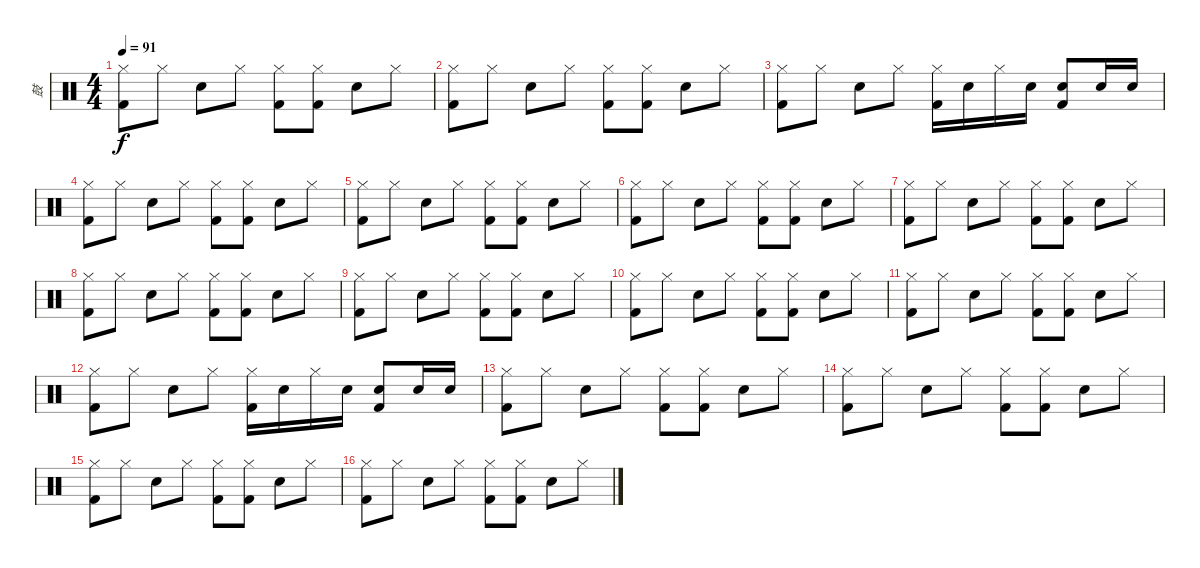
\track ("鼓" "鼓") {instrument percussion}
\staff {score}
\articulation defaults
\ts (4 4)
\tempo 91
\clef neutral
\ks c
("Hi-Hat (closed)" "Kick (hit) 2").8{dy f} "Hi-Hat (closed)".8 "Snare (hit) 2".8 "Hi-Hat (closed)".8 ("Hi-Hat (closed)" "Kick (hit) 2").8 ("Hi-Hat (closed)" "Kick (hit) 2").8 "Snare (hit) 2".8 "Hi-Hat (closed)".8 |
("Hi-Hat (closed)" "Kick (hit) 2").8 "Hi-Hat (closed)".8 "Snare (hit) 2".8 "Hi-Hat (closed)".8 ("Hi-Hat (closed)" "Kick (hit) 2").8 ("Hi-Hat (closed)" "Kick (hit) 2").8 "Snare (hit) 2".8 "Hi-Hat (closed)".8 |
("Hi-Hat (closed)" "Kick (hit) 2").8 "Hi-Hat (closed)".8 "Snare (hit) 2".8 "Hi-Hat (closed)".8 ("Hi-Hat (closed)" "Kick (hit) 2").16 "Snare (hit) 2".16 "Hi-Hat (closed)".16 "Snare (hit) 2".16 ("Snare (hit) 2" "Kick (hit) 2").8 "Snare (hit) 2".16 "Snare (hit) 2".16 |
("Hi-Hat (closed)" "Kick (hit) 2").8 "Hi-Hat (closed)".8 "Snare (hit) 2".8 "Hi-Hat (closed)".8 ("Hi-Hat (closed)" "Kick (hit) 2").8 ("Hi-Hat (closed)" "Kick (hit) 2").8 "Snare (hit) 2".8 "Hi-Hat (closed)".8 |
("Hi-Hat (closed)" "Kick (hit) 2").8 "Hi-Hat (closed)".8 "Snare (hit) 2".8 "Hi-Hat (closed)".8 ("Hi-Hat (closed)" "Kick (hit) 2").8 ("Hi-Hat (closed)" "Kick (hit) 2").8 "Snare (hit) 2".8 "Hi-Hat (closed)".8 |
("Hi-Hat (closed)" "Kick (hit) 2").8 "Hi-Hat (closed)".8 "Snare (hit) 2".8 "Hi-Hat (closed)".8 ("Hi-Hat (closed)" "Kick (hit) 2").8 ("Hi-Hat (closed)" "Kick (hit) 2").8 "Snare (hit) 2".8 "Hi-Hat (closed)".8 |
("Hi-Hat (closed)" "Kick (hit) 2").8 "Hi-Hat (closed)".8 "Snare (hit) 2".8 "Hi-Hat (closed)".8 ("Hi-Hat (closed)" "Kick (hit) 2").8 ("Hi-Hat (closed)" "Kick (hit) 2").8 "Snare (hit) 2".8 "Hi-Hat (closed)".8 |
("Hi-Hat (closed)" "Kick (hit) 2").8 "Hi-Hat (closed)".8 "Snare (hit) 2".8 "Hi-Hat (closed)".8 ("Hi-Hat (closed)" "Kick (hit) 2").8 ("Hi-Hat (closed)" "Kick (hit) 2").8 "Snare (hit) 2".8 "Hi-Hat (closed)".8 |
("Hi-Hat (closed)" "Kick (hit) 2").8 "Hi-Hat (closed)".8 "Snare (hit) 2".8 "Hi-Hat (closed)".8 ("Hi-Hat (closed)" "Kick (hit) 2").8 ("Hi-Hat (closed)" "Kick (hit) 2").8 "Snare (hit) 2".8 "Hi-Hat (closed)".8 |
("Hi-Hat (closed)" "Kick (hit) 2").8 "Hi-Hat (closed)".8 "Snare (hit) 2".8 "Hi-Hat (closed)".8 ("Hi-Hat (closed)" "Kick (hit) 2").8 ("Hi-Hat (closed)" "Kick (hit) 2").8 "Snare (hit) 2".8 "Hi-Hat (closed)".8 |
("Hi-Hat (closed)" "Kick (hit) 2").8 "Hi-Hat (closed)".8 "Snare (hit) 2".8 "Hi-Hat (closed)".8 ("Hi-Hat (closed)" "Kick (hit) 2").8 ("Hi-Hat (closed)" "Kick (hit) 2").8 "Snare (hit) 2".8 "Hi-Hat (closed)".8 |
("Hi-Hat (closed)" "Kick (hit) 2").8 "Hi-Hat (closed)".8 "Snare (hit) 2".8 "Hi-Hat (closed)".8 ("Hi-Hat (closed)" "Kick (hit) 2").16 "Snare (hit) 2".16 "Hi-Hat (closed)".16 "Snare (hit) 2".16 ("Snare (hit) 2" "Kick (hit) 2").8 "Snare (hit) 2".16 "Snare (hit) 2".16 |
("Hi-Hat (closed)" "Kick (hit) 2").8 "Hi-Hat (closed)".8 "Snare (hit) 2".8 "Hi-Hat (closed)".8 ("Hi-Hat (closed)" "Kick (hit) 2").8 ("Hi-Hat (closed)" "Kick (hit) 2").8 "Snare (hit) 2".8 "Hi-Hat (closed)".8 |
("Hi-Hat (closed)" "Kick (hit) 2").8 "Hi-Hat (closed)".8 "Snare (hit) 2".8 "Hi-Hat (closed)".8 ("Hi-Hat (closed)" "Kick (hit) 2").8 ("Hi-Hat (closed)" "Kick (hit) 2").8 "Snare (hit) 2".8 "Hi-Hat (closed)".8 |
("Hi-Hat (closed)" "Kick (hit) 2").8 "Hi-Hat (closed)".8 "Snare (hit) 2".8 "Hi-Hat (closed)".8 ("Hi-Hat (closed)" "Kick (hit) 2").8 ("Hi-Hat (closed)" "Kick (hit) 2").8 "Snare (hit) 2".8 "Hi-Hat (closed)".8 |
("Hi-Hat (closed)" "Kick (hit) 2").8 "Hi-Hat (closed)".8 "Snare (hit) 2".8 "Hi-Hat (closed)".8 ("Hi-Hat (closed)" "Kick (hit) 2").8 ("Hi-Hat (closed)" "Kick (hit) 2").8 "Snare (hit) 2".8 "Hi-Hat (closed)".8
